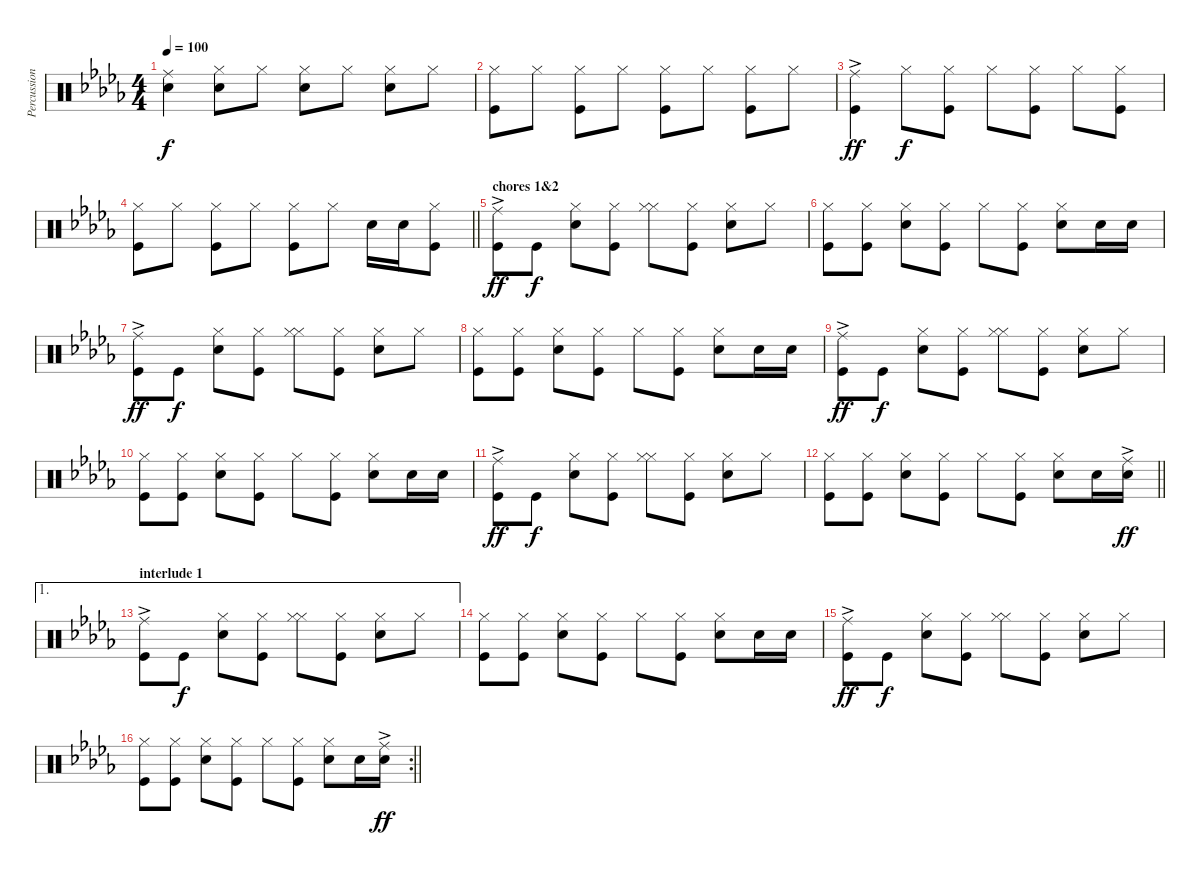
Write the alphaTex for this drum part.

\track ("Percussion( mike mamillin)" "Percussion") {instrument percussion}
\staff {score}
\articulation defaults
\ts (4 4)
\tempo 100
\clef neutral
\ks db
("Ride (middle)" "Electric Snare (hit)").4{dy f} ("Hi-Hat (closed)" "Electric Snare (hit)").8 "Hi-Hat (closed)".8 ("Hi-Hat (closed)" "Electric Snare (hit)").8 "Hi-Hat (closed)".8 ("Hi-Hat (closed)" "Electric Snare (hit)").8 "Hi-Hat (closed)".8 |
("Hi-Hat (closed)" "Kick (hit)").8 "Hi-Hat (closed)".8 ("Hi-Hat (closed)" "Kick (hit)").8 "Hi-Hat (closed)".8 ("Hi-Hat (closed)" "Kick (hit)").8 "Hi-Hat (closed)".8 ("Hi-Hat (closed)" "Kick (hit)").8 "Hi-Hat (closed)".8 |
("Ride (middle)"{ac} "Kick (hit)").4{dy ff} "Hi-Hat (closed)".8{dy f} ("Hi-Hat (closed)" "Kick (hit)").8 "Hi-Hat (closed)".8 ("Hi-Hat (closed)" "Kick (hit)").8 "Hi-Hat (closed)".8 ("Hi-Hat (closed)" "Kick (hit)").8 |
\barLineRight lightlight
("Hi-Hat (closed)" "Kick (hit)").8 "Hi-Hat (closed)".8 ("Hi-Hat (closed)" "Kick (hit)").8 "Hi-Hat (closed)".8 ("Hi-Hat (closed)" "Kick (hit)").8 "Hi-Hat (closed)".8 "Snare (hit) 2".16 "Snare (hit) 2".16 ("Hi-Hat (closed)" "Kick (hit)").8 |
\section ("" "chores 1&2 ")
("Ride (middle)"{ac} "Kick (hit)").8{dy ff} "Kick (hit)".8{dy f} ("Hi-Hat (closed)" "Snare (hit) 2").8 ("Hi-Hat (closed)" "Kick (hit)").8 ("Hi-Hat (closed)" "Hi-Hat (closed)").8 ("Hi-Hat (closed)" "Kick (hit)").8 ("Hi-Hat (closed)" "Snare (hit) 2").8 "Hi-Hat (closed)".8 |
("Hi-Hat (closed)" "Kick (hit)").8 ("Hi-Hat (closed)" "Kick (hit)").8 ("Hi-Hat (closed)" "Snare (hit) 2").8 ("Hi-Hat (closed)" "Kick (hit)").8 "Hi-Hat (closed)".8 ("Hi-Hat (closed)" "Kick (hit)").8 ("Hi-Hat (closed)" "Snare (hit) 2").8 "Snare (hit) 2".16 "Snare (hit) 2".16 |
("Ride (middle)"{ac} "Kick (hit)").8{dy ff} "Kick (hit)".8{dy f} ("Hi-Hat (closed)" "Snare (hit) 2").8 ("Hi-Hat (closed)" "Kick (hit)").8 ("Hi-Hat (closed)" "Hi-Hat (closed)").8 ("Hi-Hat (closed)" "Kick (hit)").8 ("Hi-Hat (closed)" "Snare (hit) 2").8 "Hi-Hat (closed)".8 |
("Hi-Hat (closed)" "Kick (hit)").8 ("Hi-Hat (closed)" "Kick (hit)").8 ("Hi-Hat (closed)" "Snare (hit) 2").8 ("Hi-Hat (closed)" "Kick (hit)").8 "Hi-Hat (closed)".8 ("Hi-Hat (closed)" "Kick (hit)").8 ("Hi-Hat (closed)" "Snare (hit) 2").8 "Snare (hit) 2".16 "Snare (hit) 2".16 |
("Ride (middle)"{ac} "Kick (hit)").8{dy ff} "Kick (hit)".8{dy f} ("Hi-Hat (closed)" "Snare (hit) 2").8 ("Hi-Hat (closed)" "Kick (hit)").8 ("Hi-Hat (closed)" "Hi-Hat (closed)").8 ("Hi-Hat (closed)" "Kick (hit)").8 ("Hi-Hat (closed)" "Snare (hit) 2").8 "Hi-Hat (closed)".8 |
("Hi-Hat (closed)" "Kick (hit)").8 ("Hi-Hat (closed)" "Kick (hit)").8 ("Hi-Hat (closed)" "Snare (hit) 2").8 ("Hi-Hat (closed)" "Kick (hit)").8 "Hi-Hat (closed)".8 ("Hi-Hat (closed)" "Kick (hit)").8 ("Hi-Hat (closed)" "Snare (hit) 2").8 "Snare (hit) 2".16 "Snare (hit) 2".16 |
("Ride (middle)"{ac} "Kick (hit)").8{dy ff} "Kick (hit)".8{dy f} ("Hi-Hat (closed)" "Snare (hit) 2").8 ("Hi-Hat (closed)" "Kick (hit)").8 ("Hi-Hat (closed)" "Hi-Hat (closed)").8 ("Hi-Hat (closed)" "Kick (hit)").8 ("Hi-Hat (closed)" "Snare (hit) 2").8 "Hi-Hat (closed)".8 |
\barLineRight lightlight
("Hi-Hat (closed)" "Kick (hit)").8 ("Hi-Hat (closed)" "Kick (hit)").8 ("Hi-Hat (closed)" "Snare (hit) 2").8 ("Hi-Hat (closed)" "Kick (hit)").8 "Hi-Hat (closed)".8 ("Hi-Hat (closed)" "Kick (hit)").8 ("Hi-Hat (closed)" "Snare (hit) 2").8 "Snare (hit) 2".16 ("Ride (middle)"{ac} "Snare (hit) 2").16{dy ff} |
\ae 1
\section ("" "interlude 1")
("Ride (middle)"{ac} "Kick (hit)").8 "Kick (hit)".8{dy f} ("Hi-Hat (closed)" "Snare (hit) 2").8 ("Hi-Hat (closed)" "Kick (hit)").8 ("Hi-Hat (closed)" "Hi-Hat (closed)").8 ("Hi-Hat (closed)" "Kick (hit)").8 ("Hi-Hat (closed)" "Snare (hit) 2").8 "Hi-Hat (closed)".8 |
("Hi-Hat (closed)" "Kick (hit)").8 ("Hi-Hat (closed)" "Kick (hit)").8 ("Hi-Hat (closed)" "Snare (hit) 2").8 ("Hi-Hat (closed)" "Kick (hit)").8 "Hi-Hat (closed)".8 ("Hi-Hat (closed)" "Kick (hit)").8 ("Hi-Hat (closed)" "Snare (hit) 2").8 "Snare (hit) 2".16 "Snare (hit) 2".16 |
("Ride (middle)"{ac} "Kick (hit)").8{dy ff} "Kick (hit)".8{dy f} ("Hi-Hat (closed)" "Snare (hit) 2").8 ("Hi-Hat (closed)" "Kick (hit)").8 ("Hi-Hat (closed)" "Hi-Hat (closed)").8 ("Hi-Hat (closed)" "Kick (hit)").8 ("Hi-Hat (closed)" "Snare (hit) 2").8 "Hi-Hat (closed)".8 |
\rc 2
\barLineRight lightlight
("Hi-Hat (closed)" "Kick (hit)").8 ("Hi-Hat (closed)" "Kick (hit)").8 ("Hi-Hat (closed)" "Snare (hit) 2").8 ("Hi-Hat (closed)" "Kick (hit)").8 "Hi-Hat (closed)".8 ("Hi-Hat (closed)" "Kick (hit)").8 ("Hi-Hat (closed)" "Snare (hit) 2").8 "Snare (hit) 2".16 ("Ride (middle)"{ac} "Snare (hit) 2").16{dy ff}
